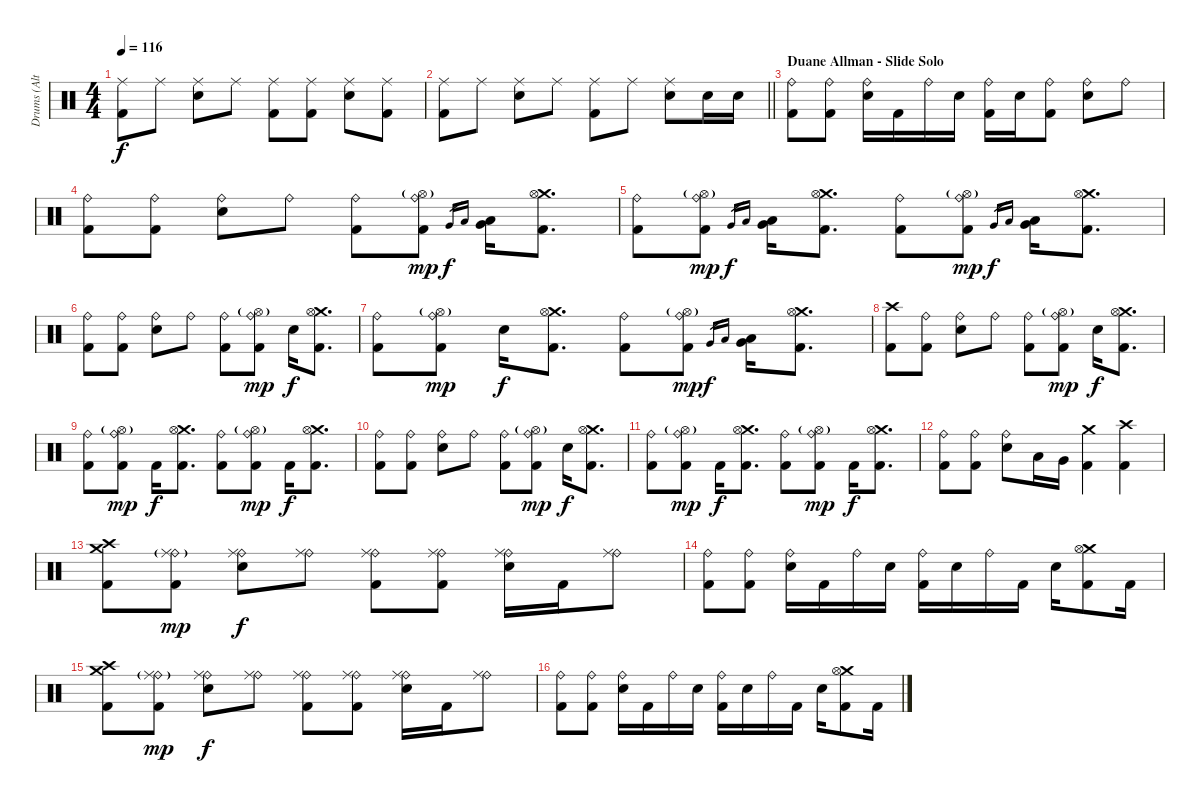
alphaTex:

\track ("Drums (Alternate - NOT ON MASTER)" "Drums (Alt") {mute instrument percussion}
\staff {score}
\articulation defaults
\ts (4 4)
\tempo 116
\clef neutral
\ks c
("Ride (middle)" "Kick (hit) 2").8{dy f} "Ride (middle)".8 ("Ride (middle)" "Snare (hit) 2").8 "Ride (middle)".8 ("Ride (middle)" "Kick (hit) 2").8 ("Ride (middle)" "Kick (hit) 2").8 ("Ride (middle)" "Snare (hit) 2").8 ("Ride (middle)" "Kick (hit) 2").8 |
\barLineRight lightlight
("Ride (middle)" "Kick (hit) 2").8 "Ride (middle)".8 ("Ride (middle)" "Snare (hit) 2").8 "Ride (middle)".8 ("Ride (middle)" "Kick (hit) 2").8 "Ride (middle)".8 ("Ride (middle)" "Snare (hit) 2").8 "Snare (hit) 2".16 "Snare (hit) 2".16 |
\section ("" "Duane Allman - Slide Solo")
("Ride (bell)" "Kick (hit) 2").8 ("Ride (bell)" "Kick (hit) 2").8 ("Ride (bell)" "Snare (hit) 2").16 "Kick (hit) 2".16 "Ride (bell)".16 "Snare (hit) 2".16 ("Ride (bell)" "Kick (hit) 2").16 "Snare (hit) 2".16 ("Ride (bell)" "Kick (hit) 2").8 ("Ride (bell)" "Snare (hit) 2").8 "Ride (bell)".8 |
("Ride (bell)" "Kick (hit) 2").8 ("Ride (bell)" "Kick (hit) 2").8 ("Ride (bell)" "Snare (hit) 2").8 "Ride (bell)".8 ("Ride (bell)" "Kick (hit) 2").8 ("Ride (bell)" "Hi-Hat (open)"{g} "Kick (hit) 2").8{dy mp} "Very Low Tom (hit)".16{gr dy f} "Low Floor Tom (hit)".16{gr} ("Very Low Tom (hit)" "Low Floor Tom (hit)").16 ("Crash medium (hit)" "Hi-Hat (open)" "Kick (hit) 2").8{d} |
("Ride (bell)" "Kick (hit) 2").8 ("Ride (bell)" "Hi-Hat (open)"{g} "Kick (hit) 2").8{dy mp} "Very Low Tom (hit)".16{gr dy f} "Low Floor Tom (hit)".16{gr} ("Very Low Tom (hit)" "Low Floor Tom (hit)").16 ("Crash medium (hit)" "Hi-Hat (open)" "Kick (hit) 2").8{d} ("Ride (bell)" "Kick (hit) 2").8 ("Ride (bell)" "Hi-Hat (open)"{g} "Kick (hit) 2").8{dy mp} "Very Low Tom (hit)".16{gr dy f} "Low Floor Tom (hit)".16{gr} ("Very Low Tom (hit)" "Low Floor Tom (hit)").16 ("Crash medium (hit)" "Hi-Hat (open)" "Kick (hit) 2").8{d} |
("Ride (bell)" "Kick (hit) 2").8 ("Ride (bell)" "Kick (hit) 2").8 ("Ride (bell)" "Snare (hit) 2").8 "Ride (bell)".8 ("Ride (bell)" "Kick (hit) 2").8 ("Ride (bell)" "Hi-Hat (open)"{g} "Kick (hit) 2").8{dy mp} "Snare (hit) 2".16{dy f} ("Crash medium (hit)" "Hi-Hat (open)" "Kick (hit) 2").8{d} |
("Ride (bell)" "Kick (hit) 2").8 ("Ride (bell)" "Hi-Hat (open)"{g} "Kick (hit) 2").8{dy mp} "Snare (hit) 2".16{dy f} ("Crash medium (hit)" "Hi-Hat (open)" "Kick (hit) 2").8{d} ("Ride (bell)" "Kick (hit) 2").8 ("Ride (bell)" "Hi-Hat (open)"{g} "Kick (hit) 2").8{dy mp} "Very Low Tom (hit)".16{gr dy f} "Low Floor Tom (hit)".16{gr} ("Very Low Tom (hit)" "Low Floor Tom (hit)").16 ("Crash medium (hit)" "Hi-Hat (open)" "Kick (hit) 2").8{d} |
("Crash high (hit)" "Kick (hit) 2").8 ("Ride (bell)" "Kick (hit) 2").8 ("Ride (bell)" "Snare (hit) 2").8 "Ride (bell)".8 ("Ride (bell)" "Kick (hit) 2").8 ("Ride (bell)" "Hi-Hat (open)"{g} "Kick (hit) 2").8{dy mp} "Snare (hit) 2".16{dy f} ("Crash medium (hit)" "Hi-Hat (open)" "Kick (hit) 2").8{d} |
("Ride (bell)" "Kick (hit) 2").8 ("Ride (bell)" "Hi-Hat (open)"{g} "Kick (hit) 2").8{dy mp} "Kick (hit) 2".16{dy f} ("Crash medium (hit)" "Hi-Hat (open)" "Kick (hit) 2").8{d} ("Ride (bell)" "Kick (hit) 2").8 ("Ride (bell)" "Hi-Hat (open)"{g} "Kick (hit) 2").8{dy mp} "Kick (hit) 2".16{dy f} ("Crash medium (hit)" "Hi-Hat (open)" "Kick (hit) 2").8{d} |
("Ride (bell)" "Kick (hit) 2").8 ("Ride (bell)" "Kick (hit) 2").8 ("Ride (bell)" "Snare (hit) 2").8 "Ride (bell)".8 ("Ride (bell)" "Kick (hit) 2").8 ("Ride (bell)" "Hi-Hat (open)"{g} "Kick (hit) 2").8{dy mp} "Snare (hit) 2".16{dy f} ("Crash medium (hit)" "Hi-Hat (open)" "Kick (hit) 2").8{d} |
("Ride (bell)" "Kick (hit) 2").8 ("Ride (bell)" "Hi-Hat (open)"{g} "Kick (hit) 2").8{dy mp} "Kick (hit) 2".16{dy f} ("Crash medium (hit)" "Hi-Hat (open)" "Kick (hit) 2").8{d} ("Ride (bell)" "Kick (hit) 2").8 ("Ride (bell)" "Hi-Hat (open)"{g} "Kick (hit) 2").8{dy mp} "Kick (hit) 2".16{dy f} ("Crash medium (hit)" "Hi-Hat (open)" "Kick (hit) 2").8{d} |
("Ride (bell)" "Kick (hit) 2").8 ("Ride (bell)" "Kick (hit) 2").8 ("Ride (bell)" "Snare (hit) 2").8 "Low Tom (hit)".16 "Very Low Tom (hit)".16 ("Crash medium (hit)" "Kick (hit) 2").4 ("Crash high (hit)" "Kick (hit) 2").4 |
("Crash medium (hit)" "Crash high (hit)" "Kick (hit) 2").8 ("Ride (bell)" "Ride (middle)"{g} "Kick (hit) 2").8{dy mp} ("Ride (bell)" "Ride (middle)" "Snare (hit) 2").8{dy f} ("Ride (bell)" "Ride (middle)").8 ("Ride (bell)" "Ride (middle)" "Kick (hit) 2").8 ("Ride (bell)" "Ride (middle)" "Kick (hit) 2").8 ("Ride (bell)" "Ride (middle)" "Snare (hit) 2").16 "Kick (hit) 2".16 ("Ride (bell)" "Ride (middle)").8 |
("Ride (bell)" "Kick (hit) 2").8 ("Ride (bell)" "Kick (hit) 2").8 ("Ride (bell)" "Snare (hit) 2").16 "Kick (hit) 2".16 "Ride (bell)".16 "Snare (hit) 2".16 ("Ride (bell)" "Kick (hit) 2").16 "Snare (hit) 2".16 "Ride (bell)".16 "Kick (hit) 2".16 "Snare (hit) 2".16 ("Crash medium (hit)" "Hi-Hat (open)" "Kick (hit) 2").8 "Kick (hit) 2".16 |
("Crash medium (hit)" "Crash high (hit)" "Kick (hit) 2").8 ("Ride (bell)" "Ride (middle)"{g} "Kick (hit) 2").8{dy mp} ("Ride (bell)" "Ride (middle)" "Snare (hit) 2").8{dy f} ("Ride (bell)" "Ride (middle)").8 ("Ride (bell)" "Ride (middle)" "Kick (hit) 2").8 ("Ride (bell)" "Ride (middle)" "Kick (hit) 2").8 ("Ride (bell)" "Ride (middle)" "Snare (hit) 2").16 "Kick (hit) 2".16 ("Ride (bell)" "Ride (middle)").8 |
("Ride (bell)" "Kick (hit) 2").8 ("Ride (bell)" "Kick (hit) 2").8 ("Ride (bell)" "Snare (hit) 2").16 "Kick (hit) 2".16 "Ride (bell)".16 "Snare (hit) 2".16 ("Ride (bell)" "Kick (hit) 2").16 "Snare (hit) 2".16 "Ride (bell)".16 "Kick (hit) 2".16 "Snare (hit) 2".16 ("Crash medium (hit)" "Hi-Hat (open)" "Kick (hit) 2").8 "Kick (hit) 2".16
